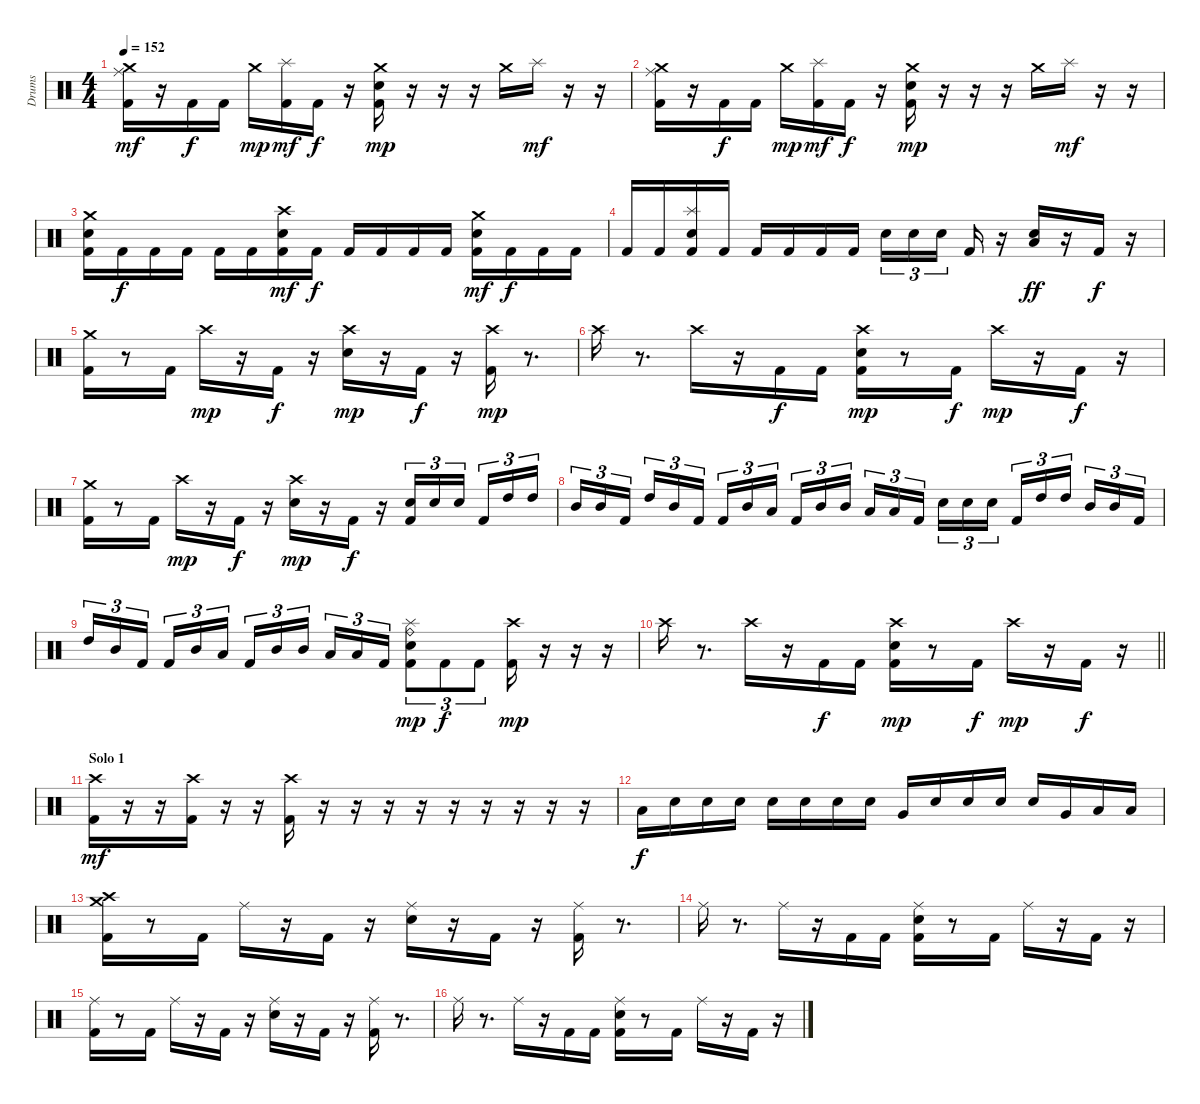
\track ("Drums" "Drums") {instrument percussion}
\staff {score}
\articulation defaults
\ts (4 4)
\tempo 152
\clef neutral
\ks c
("Crash medium (hit)" "Ride (middle)" "Kick (hit) 2").16{dy mf} r.16 "Kick (hit) 2".16{dy f} "Kick (hit) 2".16 "Crash medium (hit)".16{dy mp} ("Splash (hit)" "Kick (hit) 2").16{dy mf} "Kick (hit) 2".16{dy f} r.16 ("Crash medium (hit)" "Snare (hit) 2" "Kick (hit) 2").16{dy mp} r.16 r.16 r.16 "Crash medium (hit)".16 "Splash (hit)".16{dy mf} r.16 r.16 |
("Crash medium (hit)" "Ride (middle)" "Kick (hit) 2").16 r.16 "Kick (hit) 2".16{dy f} "Kick (hit) 2".16 "Crash medium (hit)".16{dy mp} ("Splash (hit)" "Kick (hit) 2").16{dy mf} "Kick (hit) 2".16{dy f} r.16 ("Crash medium (hit)" "Snare (hit) 2" "Kick (hit) 2").16{dy mp} r.16 r.16 r.16 "Crash medium (hit)".16 "Splash (hit)".16{dy mf} r.16 r.16 |
("Crash medium (hit)" "Snare (hit) 2" "Kick (hit) 2").16 "Kick (hit) 2".16{dy f} "Kick (hit) 2".16 "Kick (hit) 2".16 "Kick (hit) 2".16 "Kick (hit) 2".16 ("Crash high (hit)" "Snare (hit) 2" "Kick (hit) 2").16{dy mf} "Kick (hit) 2".16{dy f} "Kick (hit) 2".16 "Kick (hit) 2".16 "Kick (hit) 2".16 "Kick (hit) 2".16 ("Crash medium (hit)" "Snare (hit) 2" "Kick (hit) 2").16{dy mf} "Kick (hit) 2".16{dy f} "Kick (hit) 2".16 "Kick (hit) 2".16 |
"Kick (hit) 2".16 "Kick (hit) 2".16 ("Splash (hit)" "Snare (hit) 2" "Kick (hit) 2").16 "Kick (hit) 2".16 "Kick (hit) 2".16 "Kick (hit) 2".16 "Kick (hit) 2".16 "Kick (hit) 2".16 "Snare (hit) 2".16{tu (3 2)} "Snare (hit) 2".16{tu (3 2)} "Snare (hit) 2".16{tu (3 2)} "Kick (hit) 2".16 r.16 ("Low Floor Tom (hit)" "Snare (hit) 2").16{dy ff} r.16 "Kick (hit) 2".16{dy f} r.16 |
("Crash medium (hit)" "Kick (hit) 2").16 r.8 "Kick (hit) 2".16 "Crash high (hit)".16{dy mp} r.16 "Kick (hit) 2".16{dy f} r.16 ("Crash high (hit)" "Snare (hit) 2").16{dy mp} r.16 "Kick (hit) 2".16{dy f} r.16 ("Crash high (hit)" "Kick (hit) 2").16{dy mp} r.8{d} |
"Crash high (hit)".16 r.8{d} "Crash high (hit)".16 r.16 "Kick (hit) 2".16{dy f} "Kick (hit) 2".16 ("Crash high (hit)" "Snare (hit) 2" "Kick (hit) 2").16{dy mp} r.8 "Kick (hit) 2".16{dy f} "Crash high (hit)".16{dy mp} r.16 "Kick (hit) 2".16{dy f} r.16 |
("Crash medium (hit)" "Kick (hit) 2").16 r.8 "Kick (hit) 2".16 "Crash high (hit)".16{dy mp} r.16 "Kick (hit) 2".16{dy f} r.16 ("Crash high (hit)" "Snare (hit) 2").16{dy mp} r.16 "Kick (hit) 2".16{dy f} r.16 ("Snare (hit) 2" "Kick (hit) 2").16{tu (3 2)} "Snare (hit) 2".16{tu (3 2)} "Snare (hit) 2".16{tu (3 2)} "Kick (hit) 2".16{tu (3 2)} "High Tom (hit)".16{tu (3 2)} "High Tom (hit)".16{tu (3 2)} |
"Mid Tom (hit)".16{tu (3 2)} "Mid Tom (hit)".16{tu (3 2)} "Kick (hit) 2".16{tu (3 2)} "High Tom (hit)".16{tu (3 2)} "Mid Tom (hit)".16{tu (3 2)} "Kick (hit) 2".16{tu (3 2)} "Kick (hit) 2".16{tu (3 2)} "Mid Tom (hit)".16{tu (3 2)} "Low Tom (hit)".16{tu (3 2)} "Kick (hit) 2".16{tu (3 2)} "Mid Tom (hit)".16{tu (3 2)} "Mid Tom (hit)".16{tu (3 2)} "Low Tom (hit)".16{tu (3 2)} "Low Tom (hit)".16{tu (3 2)} "Kick (hit) 2".16{tu (3 2)} "Snare (hit) 2".16{tu (3 2)} "Snare (hit) 2".16{tu (3 2)} "Snare (hit) 2".16{tu (3 2)} "Kick (hit) 2".16{tu (3 2)} "High Tom (hit)".16{tu (3 2)} "High Tom (hit)".16{tu (3 2)} "Mid Tom (hit)".16{tu (3 2)} "Mid Tom (hit)".16{tu (3 2)} "Kick (hit) 2".16{tu (3 2)} |
"High Tom (hit)".16{tu (3 2)} "Mid Tom (hit)".16{tu (3 2)} "Kick (hit) 2".16{tu (3 2)} "Kick (hit) 2".16{tu (3 2)} "Mid Tom (hit)".16{tu (3 2)} "Low Tom (hit)".16{tu (3 2)} "Kick (hit) 2".16{tu (3 2)} "Mid Tom (hit)".16{tu (3 2)} "Mid Tom (hit)".16{tu (3 2)} "Low Tom (hit)".16{tu (3 2)} "Low Tom (hit)".16{tu (3 2)} "Kick (hit) 2".16{tu (3 2)} ("Splash (hit)" "Ride (bell)" "Snare (hit) 2" "Kick (hit) 2").8{tu (3 2) dy mp} "Kick (hit) 2".8{tu (3 2) dy f} "Kick (hit) 2".8{tu (3 2)} ("Crash high (hit)" "Kick (hit) 2").16{dy mp} r.16 r.16 r.16 |
\barLineRight lightlight "Crash high (hit)".16
r.8{d} "Crash high (hit)".16 r.16 "Kick (hit) 2".16{dy f} "Kick (hit) 2".16 ("Crash high (hit)" "Snare (hit) 2" "Kick (hit) 2").16{dy mp} r.8 "Kick (hit) 2".16{dy f} "Crash high (hit)".16{dy mp} r.16 "Kick (hit) 2".16{dy f} r.16 |
\section ("" "Solo 1")
("Crash high (hit)" "Kick (hit) 2").16{dy mf} r.16 r.16 ("Crash high (hit)" "Kick (hit) 2").16 r.16 r.16 ("Crash high (hit)" "Kick (hit) 2").16 r.16 r.16 r.16 r.16 r.16 r.16 r.16 r.16 r.16 |
"Low Tom (hit)".16{dy f} "Snare (hit) 2".16 "Snare (hit) 2".16 "Snare (hit) 2".16 "Snare (hit) 2".16 "Snare (hit) 2".16 "Snare (hit) 2".16 "Snare (hit) 2".16 "Very Low Tom (hit)".16 "Snare (hit) 2".16 "Snare (hit) 2".16 "Snare (hit) 2".16 "Snare (hit) 2".16 "Very Low Tom (hit)".16 "Low Floor Tom (hit)".16 "Low Floor Tom (hit)".16 |
("Crash medium (hit)" "Crash high (hit)" "Kick (hit) 2").16 r.8 "Kick (hit) 2".16 "Ride (middle)".16 r.16 "Kick (hit) 2".16 r.16 ("Ride (middle)" "Snare (hit) 2").16 r.16 "Kick (hit) 2".16 r.16 ("Ride (middle)" "Kick (hit) 2").16 r.8{d} |
"Ride (middle)".16 r.8{d} "Ride (middle)".16 r.16 "Kick (hit) 2".16 "Kick (hit) 2".16 ("Ride (middle)" "Snare (hit) 2" "Kick (hit) 2").16 r.8 "Kick (hit) 2".16 "Ride (middle)".16 r.16 "Kick (hit) 2".16 r.16 |
("Ride (middle)" "Kick (hit) 2").16 r.8 "Kick (hit) 2".16 "Ride (middle)".16 r.16 "Kick (hit) 2".16 r.16 ("Ride (middle)" "Snare (hit) 2").16 r.16 "Kick (hit) 2".16 r.16 ("Ride (middle)" "Kick (hit) 2").16 r.8{d} |
"Ride (middle)".16 r.8{d} "Ride (middle)".16 r.16 "Kick (hit) 2".16 "Kick (hit) 2".16 ("Ride (middle)" "Snare (hit) 2" "Kick (hit) 2").16 r.8 "Kick (hit) 2".16 "Ride (middle)".16 r.16 "Kick (hit) 2".16 r.16
